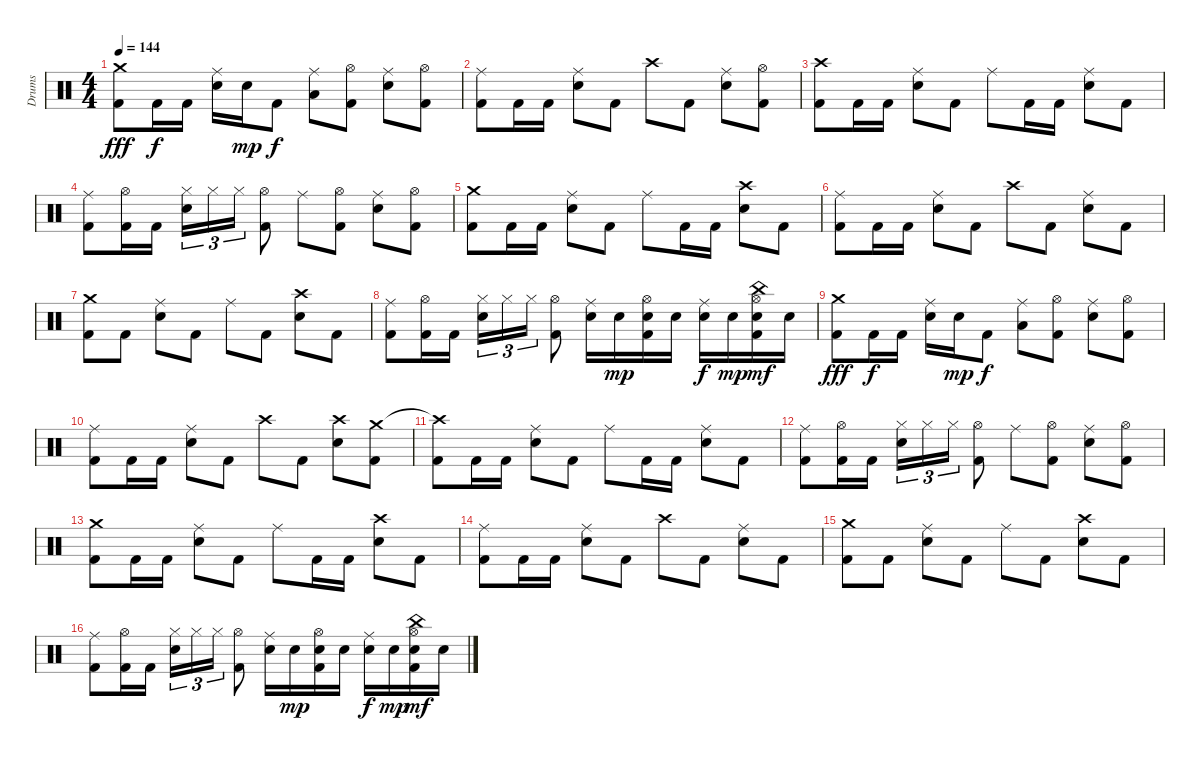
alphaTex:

\track ("Drums" "Drums") {instrument percussion}
\staff {score}
\articulation defaults
\ts (4 4)
\tempo 144
\clef neutral
\ks c
("Crash medium (hit)" "Kick (hit) 2").8{dy fff} "Kick (hit) 2".16{dy f} "Kick (hit) 2".16 ("Ride (middle)" "Snare (hit) 2").16 "Snare (hit) 2".16{dy mp} "Kick (hit) 2".8{dy f} ("Ride (middle)" "Low Tom (hit)").8 ("Hi-Hat (open)" "Kick (hit) 2").8 ("Ride (middle)" "Snare (hit) 2").8 ("Hi-Hat (open)" "Kick (hit) 2").8 |
("Ride (middle)" "Kick (hit) 2").8 "Kick (hit) 2".16 "Kick (hit) 2".16 ("Ride (middle)" "Snare (hit) 2").8 "Kick (hit) 2".8 "Crash high (hit)".8 "Kick (hit) 2".8 ("Ride (middle)" "Snare (hit) 2").8 ("Hi-Hat (open)" "Kick (hit) 2").8 |
("Crash high (hit)" "Kick (hit) 2").8 "Kick (hit) 2".16 "Kick (hit) 2".16 ("Ride (middle)" "Snare (hit) 2").8 "Kick (hit) 2".8 "Ride (middle)".8 "Kick (hit) 2".16 "Kick (hit) 2".16 ("Ride (middle)" "Snare (hit) 2").8 "Kick (hit) 2".8 |
("Ride (middle)" "Kick (hit) 2").8 ("Hi-Hat (open)" "Kick (hit) 2").16 "Kick (hit) 2".16 ("Hi-Hat (closed)" "Snare (hit) 2").16{tu (3 2)} "Hi-Hat (closed)".16{tu (3 2)} "Hi-Hat (closed)".16{tu (3 2)} ("Hi-Hat (open)" "Kick (hit) 2").8 "Ride (middle)".8 ("Hi-Hat (open)" "Kick (hit) 2").8 ("Ride (middle)" "Snare (hit) 2").8 ("Hi-Hat (open)" "Kick (hit) 2").8 |
("Crash medium (hit)" "Kick (hit) 2").8 "Kick (hit) 2".16 "Kick (hit) 2".16 ("Ride (middle)" "Snare (hit) 2").8 "Kick (hit) 2".8 "Ride (middle)".8 "Kick (hit) 2".16 "Kick (hit) 2".16 ("Crash high (hit)" "Snare (hit) 2").8 "Kick (hit) 2".8 |
("Ride (middle)" "Kick (hit) 2").8 "Kick (hit) 2".16 "Kick (hit) 2".16 ("Ride (middle)" "Snare (hit) 2").8 "Kick (hit) 2".8 "Crash high (hit)".8 "Kick (hit) 2".8 ("Ride (middle)" "Snare (hit) 2").8 "Kick (hit) 2".8 |
("Crash medium (hit)" "Kick (hit) 2").8 "Kick (hit) 2".8 ("Ride (middle)" "Snare (hit) 2").8 "Kick (hit) 2".8 "Ride (middle)".8 "Kick (hit) 2".8 ("Crash high (hit)" "Snare (hit) 2").8 "Kick (hit) 2".8 |
("Ride (middle)" "Kick (hit) 2").8 ("Hi-Hat (open)" "Kick (hit) 2").16 "Kick (hit) 2".16 ("Hi-Hat (closed)" "Snare (hit) 2").16{tu (3 2)} "Hi-Hat (closed)".16{tu (3 2)} "Hi-Hat (closed)".16{tu (3 2)} ("Hi-Hat (open)" "Kick (hit) 2").8 ("Ride (middle)" "Snare (hit) 2").16 "Snare (hit) 2".16{dy mp} ("Hi-Hat (open)" "Snare (hit) 2" "Kick (hit) 2").16 "Snare (hit) 2".16 ("Ride (middle)" "Snare (hit) 2").16{dy f} "Snare (hit) 2".16{dy mp} ("Hi-Hat (open)" "China (hit)" "Snare (hit) 2" "Kick (hit) 2").16{dy mf} "Snare (hit) 2".16 |
("Crash medium (hit)" "Kick (hit) 2").8{dy fff} "Kick (hit) 2".16{dy f} "Kick (hit) 2".16 ("Ride (middle)" "Snare (hit) 2").16 "Snare (hit) 2".16{dy mp} "Kick (hit) 2".8{dy f} ("Ride (middle)" "Low Tom (hit)").8 ("Hi-Hat (open)" "Kick (hit) 2").8 ("Ride (middle)" "Snare (hit) 2").8 ("Hi-Hat (open)" "Kick (hit) 2").8 |
("Ride (middle)" "Kick (hit) 2").8 "Kick (hit) 2".16 "Kick (hit) 2".16 ("Ride (middle)" "Snare (hit) 2").8 "Kick (hit) 2".8 "Crash high (hit)".8 "Kick (hit) 2".8 ("Crash high (hit)" "Snare (hit) 2").8 ("Crash medium (hit)" "Kick (hit) 2").8 |
("Crash high (hit)"{t} "Kick (hit) 2").8 "Kick (hit) 2".16 "Kick (hit) 2".16 ("Ride (middle)" "Snare (hit) 2").8 "Kick (hit) 2".8 "Ride (middle)".8 "Kick (hit) 2".16 "Kick (hit) 2".16 ("Ride (middle)" "Snare (hit) 2").8 "Kick (hit) 2".8 |
("Ride (middle)" "Kick (hit) 2").8 ("Hi-Hat (open)" "Kick (hit) 2").16 "Kick (hit) 2".16 ("Hi-Hat (closed)" "Snare (hit) 2").16{tu (3 2)} "Hi-Hat (closed)".16{tu (3 2)} "Hi-Hat (closed)".16{tu (3 2)} ("Hi-Hat (open)" "Kick (hit) 2").8 "Ride (middle)".8 ("Hi-Hat (open)" "Kick (hit) 2").8 ("Ride (middle)" "Snare (hit) 2").8 ("Hi-Hat (open)" "Kick (hit) 2").8 |
("Crash medium (hit)" "Kick (hit) 2").8 "Kick (hit) 2".16 "Kick (hit) 2".16 ("Ride (middle)" "Snare (hit) 2").8 "Kick (hit) 2".8 "Ride (middle)".8 "Kick (hit) 2".16 "Kick (hit) 2".16 ("Crash high (hit)" "Snare (hit) 2").8 "Kick (hit) 2".8 |
("Ride (middle)" "Kick (hit) 2").8 "Kick (hit) 2".16 "Kick (hit) 2".16 ("Ride (middle)" "Snare (hit) 2").8 "Kick (hit) 2".8 "Crash high (hit)".8 "Kick (hit) 2".8 ("Ride (middle)" "Snare (hit) 2").8 "Kick (hit) 2".8 |
("Crash medium (hit)" "Kick (hit) 2").8 "Kick (hit) 2".8 ("Ride (middle)" "Snare (hit) 2").8 "Kick (hit) 2".8 "Ride (middle)".8 "Kick (hit) 2".8 ("Crash high (hit)" "Snare (hit) 2").8 "Kick (hit) 2".8 |
("Ride (middle)" "Kick (hit) 2").8 ("Hi-Hat (open)" "Kick (hit) 2").16 "Kick (hit) 2".16 ("Hi-Hat (closed)" "Snare (hit) 2").16{tu (3 2)} "Hi-Hat (closed)".16{tu (3 2)} "Hi-Hat (closed)".16{tu (3 2)} ("Hi-Hat (open)" "Kick (hit) 2").8 ("Ride (middle)" "Snare (hit) 2").16 "Snare (hit) 2".16{dy mp} ("Hi-Hat (open)" "Snare (hit) 2" "Kick (hit) 2").16 "Snare (hit) 2".16 ("Ride (middle)" "Snare (hit) 2").16{dy f} "Snare (hit) 2".16{dy mp} ("Hi-Hat (open)" "China (hit)" "Snare (hit) 2" "Kick (hit) 2").16{dy mf} "Snare (hit) 2".16
